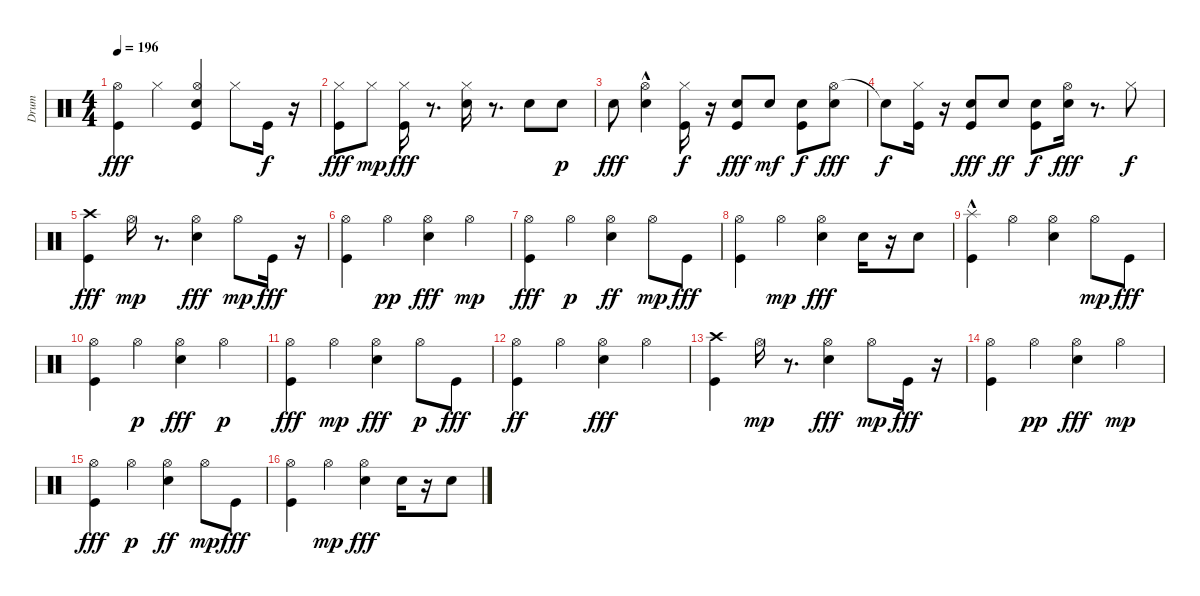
\track ("Drum" "Drum") {instrument percussion}
\staff {score}
\articulation defaults
\ts (4 4)
\tempo 196
\clef neutral
\ks c
("Kick (hit)" "Hi-Hat (open)").4{dy fff} "Hi-Hat (closed)".4 ("Kick (hit)" "Hi-Hat (open)" "Snare (hit) 2").4 "Hi-Hat (closed)".8 "Kick (hit)".16{dy f} r.16 |
("Kick (hit)" "Hi-Hat (closed)").8{dy fff} "Hi-Hat (closed)".8{dy mp} ("Kick (hit)" "Hi-Hat (closed)").16{dy fff} r.8{d} ("Snare (hit) 2" "Hi-Hat (closed)").16 r.8{d} "Snare (hit) 2".8 "Snare (hit) 2".8{dy p} |
"Snare (hit) 2".8{dy fff} ("Hi-Hat (open)" "Snare (hit) 2"{hac}).4 ("Hi-Hat (closed)" "Kick (hit)").16{dy f} r.16 ("Kick (hit)" "Snare (hit) 2").8{dy fff} "Snare (hit) 2".8{dy mf} ("Kick (hit)" "Snare (hit) 2").8{dy f} ("Hi-Hat (open)" "Snare (hit) 2").8{dy fff} |
"Snare (hit)"{t}.8{dy f} ("Hi-Hat (closed)" "Kick (hit)").16 r.16 ("Kick (hit)" "Snare (hit) 2").8{dy fff} "Snare (hit) 2".8{dy ff} ("Kick (hit)" "Snare (hit) 2").8{dy f} ("Hi-Hat (open)" "Snare (hit) 2").16{dy fff} r.8{d} "Hi-Hat (closed)".8{dy f} |
("Crash high (hit)" "Kick (hit)").4{dy fff} "Hi-Hat (open)".16{dy mp} r.8{d} ("Hi-Hat (open)" "Snare (hit) 2").4{dy fff} "Hi-Hat (open)".8{dy mp} "Kick (hit)".16{dy fff} r.16 |
("Kick (hit)" "Hi-Hat (open)").4 "Hi-Hat (open)".4{dy pp} ("Hi-Hat (open)" "Snare (hit) 2").4{dy fff} "Hi-Hat (open)".4{dy mp} |
("Kick (hit)" "Hi-Hat (open)").4{dy fff} "Hi-Hat (open)".4{dy p} ("Snare (hit) 2" "Hi-Hat (open)").4{dy ff} "Hi-Hat (open)".8{dy mp} "Kick (hit)".8{dy fff} |
("Kick (hit)" "Hi-Hat (open)").4 "Hi-Hat (open)".4{dy mp} ("Hi-Hat (open)" "Snare (hit) 2").4{dy fff} "Snare (hit) 2".16 r.16 "Snare (hit) 2".8 |
("Splash (hit)" "Kick (hit)"{hac}).4 "Hi-Hat (open)".4 ("Hi-Hat (open)" "Snare (hit) 2").4 "Hi-Hat (open)".8{dy mp} "Kick (hit)".8{dy fff} |
("Kick (hit)" "Hi-Hat (open)").4 "Hi-Hat (open)".4{dy p} ("Snare (hit) 2" "Hi-Hat (open)").4{dy fff} "Hi-Hat (open)".4{dy p} |
("Kick (hit)" "Hi-Hat (open)").4{dy fff} "Hi-Hat (open)".4{dy mp} ("Hi-Hat (open)" "Snare (hit) 2").4{dy fff} "Hi-Hat (open)".8{dy p} "Kick (hit)".8{dy fff} |
("Kick (hit)" "Hi-Hat (open)").4{dy ff} "Hi-Hat (open)".4 ("Hi-Hat (open)" "Snare (hit) 2").4{dy fff} "Hi-Hat (open)".4 |
("Crash high (hit)" "Kick (hit)").4 "Hi-Hat (open)".16{dy mp} r.8{d} ("Hi-Hat (open)" "Snare (hit) 2").4{dy fff} "Hi-Hat (open)".8{dy mp} "Kick (hit)".16{dy fff} r.16 |
("Kick (hit)" "Hi-Hat (open)").4 "Hi-Hat (open)".4{dy pp} ("Hi-Hat (open)" "Snare (hit) 2").4{dy fff} "Hi-Hat (open)".4{dy mp} |
("Kick (hit)" "Hi-Hat (open)").4{dy fff} "Hi-Hat (open)".4{dy p} ("Snare (hit) 2" "Hi-Hat (open)").4{dy ff} "Hi-Hat (open)".8{dy mp} "Kick (hit)".8{dy fff} |
("Kick (hit)" "Hi-Hat (open)").4 "Hi-Hat (open)".4{dy mp} ("Hi-Hat (open)" "Snare (hit) 2").4{dy fff} "Snare (hit) 2".16 r.16 "Snare (hit) 2".8
